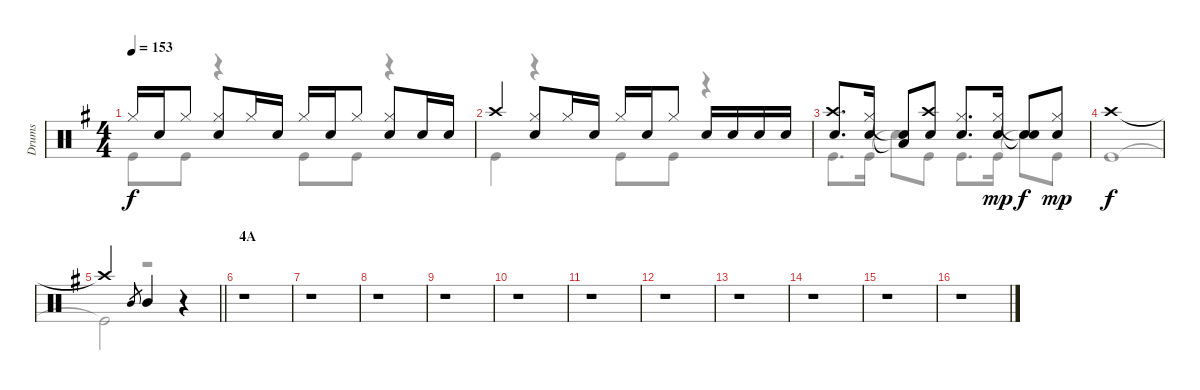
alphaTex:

\track ("Drums" "Drums") {instrument percussion}
\staff {score}
\articulation defaults
\voice
\ts (4 4)
\tempo 153
\clef neutral
\ks g "Hi-Hat (closed)".16{dy f} "Snare (hit) 2".16 "Hi-Hat (closed)".8
("Hi-Hat (closed)" "Snare (hit) 2").8 "Hi-Hat (closed)".16 "Snare (hit) 2".16 "Hi-Hat (closed)".16 "Snare (hit) 2".16 "Hi-Hat (closed)".8 ("Hi-Hat (closed)" "Snare (hit) 2").8 "Snare (hit) 2".16 "Snare (hit) 2".16 |
"Crash high (hit)".4 ("Hi-Hat (closed)" "Snare (hit) 2").8 "Hi-Hat (closed)".16 "Snare (hit) 2".16 "Hi-Hat (closed)".16 "Snare (hit) 2".16 "Hi-Hat (closed)".8 "Snare (hit) 2".16 "Snare (hit) 2".16 "Snare (hit) 2".16 "Snare (hit) 2".16 |
("Crash high (hit)" "Snare (hit) 2").8{d} ("Hi-Hat (closed)" "Snare (hit) 2").16 ("Snare (hit)"{t} "Low Tom (hit)"{t}).8 ("Crash high (hit)" "Snare (hit) 2").8 ("Hi-Hat (closed)" "Snare (hit) 2").8{d} ("Hi-Hat (closed)" "Snare (hit) 2").16{dy mp} ("Snare (hit)"{t} "Snare (hit)"{t}).8{dy f} ("Hi-Hat (closed)" "Snare (hit) 2").8{dy mp} |
"Crash high (hit)".1{dy f} |
\barLineRight lightlight "Crash high (hit)"{t}.2 "Mid Tom (hit)".8{gr} "Mid Tom (hit)".4
r.4 |
\section ("" "4A")
r.1 |
r.1 |
r.1 |
r.1 |
r.1 |
r.1 |
r.1 |
r.1 |
r.1 |
r.1 |
r.1
\voice
\clef neutral
\ottava regular
\simile none
\ks g "Kick (hit)".8{dy f} "Kick (hit)".8
r.4 "Kick (hit)".8 "Kick (hit)".8 r.4 |
"Kick (hit)".4 r.4 "Kick (hit)".8 "Kick (hit)".8 r.4 |
"Kick (hit)".8{d} "Kick (hit)".16 "Snare (hit)"{t}.8 "Kick (hit)".8 "Kick (hit)".8{d} "Kick (hit)".16{dy mp} "Snare (hit)"{t}.8{dy f} "Kick (hit)".8{dy mp} |
"Kick (hit)".1{dy f} |
\barLineRight lightlight "Kick (hit)"{t}.2
r.2 |
r.1 |
r.1 |
r.1 |
r.1 |
r.1 |
r.1 |
r.1 |
r.1 |
r.1 |
r.1 |
r.1
